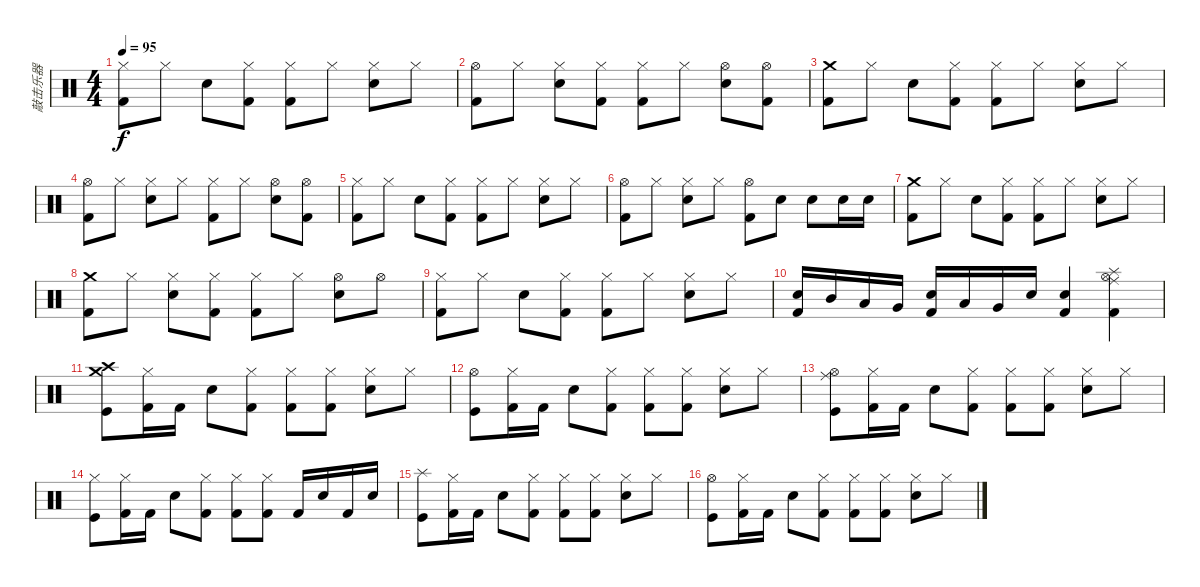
\track ("敲击乐器" "敲击乐器") {instrument percussion}
\staff {score}
\articulation defaults
\ts (4 4)
\tempo 95
\clef neutral
\ks c
("Hi-Hat (closed)" "Kick (hit) 2").8{dy f} "Hi-Hat (closed)".8 "Electric Snare (hit)".8 ("Hi-Hat (closed)" "Kick (hit) 2").8 ("Hi-Hat (closed)" "Kick (hit) 2").8 "Hi-Hat (closed)".8 ("Hi-Hat (closed)" "Electric Snare (hit)").8 "Hi-Hat (closed)".8 |
("Hi-Hat (open)" "Kick (hit) 2").8 "Hi-Hat (closed)".8 ("Hi-Hat (closed)" "Electric Snare (hit)").8 ("Hi-Hat (closed)" "Kick (hit) 2").8 ("Hi-Hat (closed)" "Kick (hit) 2").8 "Hi-Hat (closed)".8 ("Hi-Hat (open)" "Electric Snare (hit)").8 ("Hi-Hat (open)" "Kick (hit) 2").8 |
("Crash medium (hit)" "Kick (hit) 2").8 "Hi-Hat (closed)".8 "Electric Snare (hit)".8 ("Hi-Hat (closed)" "Kick (hit) 2").8 ("Hi-Hat (closed)" "Kick (hit) 2").8 "Hi-Hat (closed)".8 ("Hi-Hat (closed)" "Electric Snare (hit)").8 "Hi-Hat (closed)".8 |
("Hi-Hat (open)" "Kick (hit) 2").8 "Hi-Hat (closed)".8 ("Hi-Hat (closed)" "Electric Snare (hit)").8 "Hi-Hat (closed)".8 ("Hi-Hat (closed)" "Kick (hit) 2").8 "Hi-Hat (closed)".8 ("Hi-Hat (open)" "Electric Snare (hit)").8 ("Hi-Hat (open)" "Kick (hit) 2").8 |
("Hi-Hat (closed)" "Kick (hit) 2").8 "Hi-Hat (closed)".8 "Electric Snare (hit)".8 ("Hi-Hat (closed)" "Kick (hit) 2").8 ("Hi-Hat (closed)" "Kick (hit) 2").8 "Hi-Hat (closed)".8 ("Hi-Hat (closed)" "Electric Snare (hit)").8 "Hi-Hat (closed)".8 |
("Hi-Hat (open)" "Kick (hit) 2").8 "Hi-Hat (closed)".8 ("Hi-Hat (closed)" "Electric Snare (hit)").8 "Hi-Hat (closed)".8 ("Hi-Hat (open)" "Kick (hit) 2").8 "Electric Snare (hit)".8 "Electric Snare (hit)".8 "Electric Snare (hit)".16 "Electric Snare (hit)".16 |
("Crash medium (hit)" "Kick (hit) 2").8 "Hi-Hat (closed)".8 "Electric Snare (hit)".8 ("Hi-Hat (closed)" "Kick (hit) 2").8 ("Hi-Hat (closed)" "Kick (hit) 2").8 "Hi-Hat (closed)".8 ("Hi-Hat (closed)" "Electric Snare (hit)").8 "Hi-Hat (closed)".8 |
("Crash medium (hit)" "Kick (hit) 2").8 "Hi-Hat (closed)".8 ("Hi-Hat (closed)" "Electric Snare (hit)").8 ("Hi-Hat (closed)" "Kick (hit) 2").8 ("Hi-Hat (closed)" "Kick (hit) 2").8 "Hi-Hat (closed)".8 ("Hi-Hat (open)" "Electric Snare (hit)").8 "Hi-Hat (open)".8 |
("Hi-Hat (closed)" "Kick (hit) 2").8 "Hi-Hat (closed)".8 "Electric Snare (hit)".8 ("Hi-Hat (closed)" "Kick (hit) 2").8 ("Hi-Hat (closed)" "Kick (hit) 2").8 "Hi-Hat (closed)".8 ("Hi-Hat (closed)" "Electric Snare (hit)").8 "Hi-Hat (closed)".8 |
("Electric Snare (hit)" "Kick (hit) 2").16 "Mid Tom (hit)".16 "Low Tom (hit)".16 "Very Low Tom (hit)".16 ("Electric Snare (hit)" "Kick (hit) 2").16 "Low Tom (hit)".16 "Very Low Tom (hit)".16 "Electric Snare (hit)".16 ("Electric Snare (hit)" "Kick (hit) 2").4 ("Splash (hit)" "Ride (middle)" "Hi-Hat (open)" "Kick (hit) 2").4 |
("Crash medium (hit)" "Crash high (hit)" "Kick (hit)").8 ("Hi-Hat (closed)" "Kick (hit) 2").16 "Kick (hit) 2".16 "Electric Snare (hit)".8 ("Hi-Hat (closed)" "Kick (hit) 2").8 ("Hi-Hat (closed)" "Kick (hit) 2").8 ("Hi-Hat (closed)" "Kick (hit) 2").8 ("Hi-Hat (closed)" "Electric Snare (hit)").8 "Hi-Hat (closed)".8 |
("Hi-Hat (open)" "Kick (hit)").8 ("Hi-Hat (closed)" "Kick (hit) 2").16 "Kick (hit) 2".16 "Electric Snare (hit)".8 ("Hi-Hat (closed)" "Kick (hit) 2").8 ("Hi-Hat (closed)" "Kick (hit) 2").8 ("Hi-Hat (closed)" "Kick (hit) 2").8 ("Hi-Hat (closed)" "Electric Snare (hit)").8 "Hi-Hat (closed)".8 |
("Ride (middle)" "Hi-Hat (open)" "Kick (hit)").8 ("Hi-Hat (closed)" "Kick (hit) 2").16 "Kick (hit) 2".16 "Electric Snare (hit)".8 ("Hi-Hat (closed)" "Kick (hit) 2").8 ("Hi-Hat (closed)" "Kick (hit) 2").8 ("Hi-Hat (closed)" "Kick (hit) 2").8 ("Hi-Hat (closed)" "Electric Snare (hit)").8 "Hi-Hat (closed)".8 |
("Hi-Hat (closed)" "Kick (hit)").8 ("Hi-Hat (closed)" "Kick (hit) 2").16 "Kick (hit) 2".16 "Electric Snare (hit)".8 ("Hi-Hat (closed)" "Kick (hit) 2").8 ("Hi-Hat (closed)" "Kick (hit) 2").8 ("Hi-Hat (closed)" "Kick (hit) 2").8 "Kick (hit) 2".16 "Electric Snare (hit)".16 "Kick (hit) 2".16 "Electric Snare (hit)".16 |
("Splash (hit)" "Kick (hit)").8 ("Hi-Hat (closed)" "Kick (hit) 2").16 "Kick (hit) 2".16 "Electric Snare (hit)".8 ("Hi-Hat (closed)" "Kick (hit) 2").8 ("Hi-Hat (closed)" "Kick (hit) 2").8 ("Hi-Hat (closed)" "Kick (hit) 2").8 ("Hi-Hat (closed)" "Electric Snare (hit)").8 "Hi-Hat (closed)".8 |
("Hi-Hat (open)" "Kick (hit)").8 ("Hi-Hat (closed)" "Kick (hit) 2").16 "Kick (hit) 2".16 "Electric Snare (hit)".8 ("Hi-Hat (closed)" "Kick (hit) 2").8 ("Hi-Hat (closed)" "Kick (hit) 2").8 ("Hi-Hat (closed)" "Kick (hit) 2").8 ("Hi-Hat (closed)" "Electric Snare (hit)").8 "Hi-Hat (closed)".8
